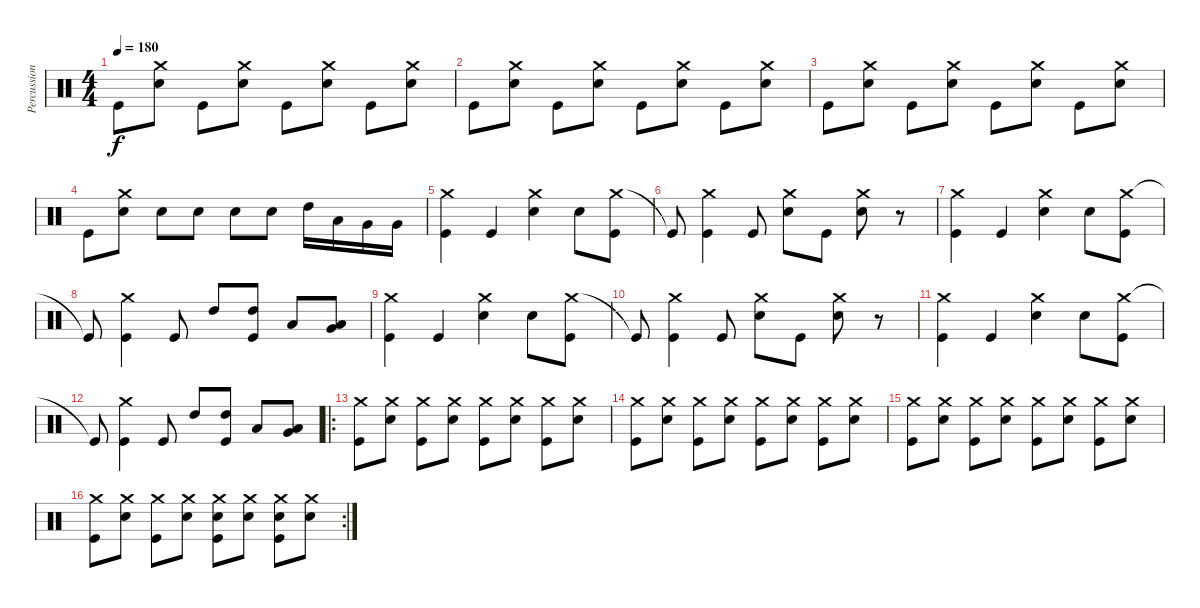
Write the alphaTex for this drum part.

\track ("Percussion" "Percussion") {instrument percussion}
\staff {score}
\articulation defaults
\ts (4 4)
\tempo 180
\clef neutral
\ks c "Kick (hit)".8{dy f}
("Crash medium (hit)" "Electric Snare (hit)").8 "Kick (hit)".8 ("Crash medium (hit)" "Electric Snare (hit)").8 "Kick (hit)".8 ("Crash medium (hit)" "Electric Snare (hit)").8 "Kick (hit)".8 ("Crash medium (hit)" "Electric Snare (hit)").8 |
"Kick (hit)".8 ("Crash medium (hit)" "Electric Snare (hit)").8 "Kick (hit)".8 ("Crash medium (hit)" "Electric Snare (hit)").8 "Kick (hit)".8 ("Crash medium (hit)" "Electric Snare (hit)").8 "Kick (hit)".8 ("Crash medium (hit)" "Electric Snare (hit)").8 |
"Kick (hit)".8 ("Crash medium (hit)" "Electric Snare (hit)").8 "Kick (hit)".8 ("Crash medium (hit)" "Electric Snare (hit)").8 "Kick (hit)".8 ("Crash medium (hit)" "Electric Snare (hit)").8 "Kick (hit)".8 ("Crash medium (hit)" "Electric Snare (hit)").8 |
"Kick (hit)".8 ("Crash medium (hit)" "Electric Snare (hit)").8 "Electric Snare (hit)".8 "Electric Snare (hit)".8 "Electric Snare (hit)".8 "Electric Snare (hit)".8 "High Tom (hit)".16 "Low Tom (hit)".16 "Very Low Tom (hit)".16 "Very Low Tom (hit)".16 |
("Crash medium (hit)" "Kick (hit)").4 "Kick (hit)".4 ("Crash medium (hit)" "Electric Snare (hit)").4 "Electric Snare (hit)".8 ("Crash medium (hit)" "Kick (hit)").8 |
"Kick (hit)"{t}.8 ("Crash medium (hit)" "Kick (hit)").4 "Kick (hit)".8 ("Crash medium (hit)" "Electric Snare (hit)").8 "Kick (hit)".8 ("Crash medium (hit)" "Electric Snare (hit)").8 r.8 |
("Crash medium (hit)" "Kick (hit)").4 "Kick (hit)".4 ("Crash medium (hit)" "Electric Snare (hit)").4 "Electric Snare (hit)".8 ("Crash medium (hit)" "Kick (hit)").8 |
"Kick (hit)"{t}.8 ("Crash medium (hit)" "Kick (hit)").4 "Kick (hit)".8 "High Tom (hit)".8 ("High Tom (hit)" "Kick (hit)").8 "Low Tom (hit)".8 ("Low Tom (hit)" "Very Low Tom (hit)").8 |
("Crash medium (hit)" "Kick (hit)").4 "Kick (hit)".4 ("Crash medium (hit)" "Electric Snare (hit)").4 "Electric Snare (hit)".8 ("Crash medium (hit)" "Kick (hit)").8 |
"Kick (hit)"{t}.8 ("Crash medium (hit)" "Kick (hit)").4 "Kick (hit)".8 ("Crash medium (hit)" "Electric Snare (hit)").8 "Kick (hit)".8 ("Crash medium (hit)" "Electric Snare (hit)").8 r.8 |
("Crash medium (hit)" "Kick (hit)").4 "Kick (hit)".4 ("Crash medium (hit)" "Electric Snare (hit)").4 "Electric Snare (hit)".8 ("Crash medium (hit)" "Kick (hit)").8 |
"Kick (hit)"{t}.8 ("Crash medium (hit)" "Kick (hit)").4 "Kick (hit)".8 "High Tom (hit)".8 ("High Tom (hit)" "Kick (hit)").8 "Low Tom (hit)".8 ("Low Tom (hit)" "Very Low Tom (hit)").8 |
\ro
("Crash medium (hit)" "Kick (hit)").8 ("Crash medium (hit)" "Electric Snare (hit)").8 ("Crash medium (hit)" "Kick (hit)").8 ("Crash medium (hit)" "Electric Snare (hit)").8 ("Crash medium (hit)" "Kick (hit)").8 ("Crash medium (hit)" "Electric Snare (hit)").8 ("Crash medium (hit)" "Kick (hit)").8 ("Crash medium (hit)" "Electric Snare (hit)").8 |
("Crash medium (hit)" "Kick (hit)").8 ("Crash medium (hit)" "Electric Snare (hit)").8 ("Crash medium (hit)" "Kick (hit)").8 ("Crash medium (hit)" "Electric Snare (hit)").8 ("Crash medium (hit)" "Kick (hit)").8 ("Crash medium (hit)" "Electric Snare (hit)").8 ("Crash medium (hit)" "Kick (hit)").8 ("Crash medium (hit)" "Electric Snare (hit)").8 |
("Crash medium (hit)" "Kick (hit)").8 ("Crash medium (hit)" "Electric Snare (hit)").8 ("Crash medium (hit)" "Kick (hit)").8 ("Crash medium (hit)" "Electric Snare (hit)").8 ("Crash medium (hit)" "Kick (hit)").8 ("Crash medium (hit)" "Electric Snare (hit)").8 ("Crash medium (hit)" "Kick (hit)").8 ("Crash medium (hit)" "Electric Snare (hit)").8 |
\rc 2
("Crash medium (hit)" "Kick (hit)").8 ("Crash medium (hit)" "Electric Snare (hit)").8 ("Crash medium (hit)" "Kick (hit)").8 ("Crash medium (hit)" "Electric Snare (hit)").8 ("Crash medium (hit)" "Electric Snare (hit)" "Kick (hit)").8 ("Crash medium (hit)" "Electric Snare (hit)").8 ("Crash medium (hit)" "Electric Snare (hit)" "Kick (hit)").8 ("Crash medium (hit)" "Electric Snare (hit)").8
